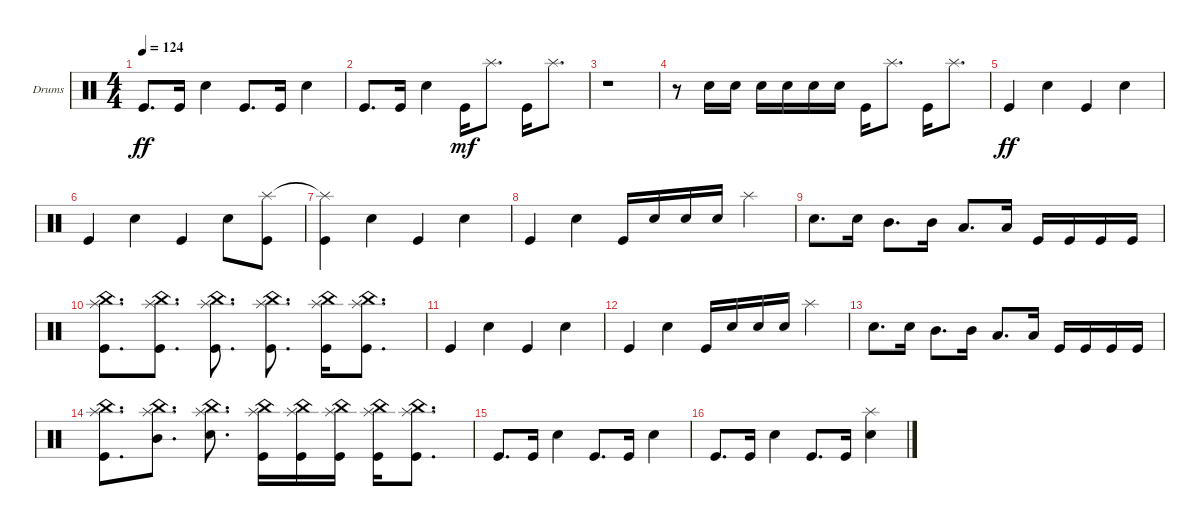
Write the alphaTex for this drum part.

\defaultSystemsLayout 4
\bracketExtendMode groupsimilarinstruments
\firstSystemTrackNameOrientation horizontal
\otherSystemsTrackNameOrientation horizontal
\track ("Nick Menza" "Drums") {instrument percussion}
\staff {score}
\articulation defaults
\ts (4 4)
\tempo 124
\clef neutral
\scale
0.333333
\ks c "Kick (hit)".8{d dy ff} "Kick (hit)".16 "Snare (hit) 2".4 "Kick (hit)".8{d} "Kick (hit)".16 "Snare (hit) 2".4
|
\scale
0.333333 "Kick (hit)".8{d} "Kick (hit)".16 "Snare (hit) 2".4 "Kick (hit)".16{dy mf} "Splash (hit)".8{d} "Kick (hit)".16 "Splash (hit)".8{d} |
\scale
0.333333 r.1 |
\scale
0.333333 r.8 "Snare (hit) 2".16 "Snare (hit) 2".16 "Snare (hit) 2".16 "Snare (hit) 2".16 "Snare (hit) 2".16 "Snare (hit) 2".16 "Kick (hit)".16 "Splash (hit)".8{d} "Kick (hit)".16 "Splash (hit)".8{d} |
\scale
0.333333 "Kick (hit)".4{dy ff} "Snare (hit) 2".4 "Kick (hit)".4 "Snare (hit) 2".4 |
\scale
0.333333 "Kick (hit)".4 "Snare (hit) 2".4 "Kick (hit)".4 "Snare (hit) 2".8 ("Splash (hit)" "Kick (hit)").8 |
\scale
0.333333 ("Splash (hit)"{t} "Kick (hit)").4 "Snare (hit) 2".4 "Kick (hit)".4 "Snare (hit) 2".4 |
\scale
0.333333 "Kick (hit)".4 "Snare (hit) 2".4 "Kick (hit)".16 "Snare (hit) 2".16 "Snare (hit) 2".16 "Snare (hit) 2".16 "Splash (hit)".4 |
\scale
0.333333 "Snare (hit) 2".8{d} "Snare (hit) 2".16 "Mid Tom (hit)".8{d} "Mid Tom (hit)".16 "Low Tom (hit)".8{d} "Low Tom (hit)".16 "Kick (hit)".16 "Kick (hit)".16 "Kick (hit)".16 "Kick (hit)".16 |
\scale
0.333333 ("China (hit)" "Splash (hit)" "Kick (hit)").8{d} ("Splash (hit)" "China (hit)" "Kick (hit)").8{d} ("Splash (hit)" "China (hit)" "Kick (hit)").8{d} ("Splash (hit)" "China (hit)" "Kick (hit)").8{d} ("Splash (hit)" "China (hit)" "Kick (hit)").16 ("Splash (hit)" "China (hit)" "Kick (hit)").8{d} |
\scale
0.333333 "Kick (hit)".4 "Snare (hit) 2".4 "Kick (hit)".4 "Snare (hit) 2".4 |
\scale
0.333333 "Kick (hit)".4 "Snare (hit) 2".4 "Kick (hit)".16 "Snare (hit) 2".16 "Snare (hit) 2".16 "Snare (hit) 2".16 "Splash (hit)".4 |
\scale
0.333333 "Snare (hit) 2".8{d} "Snare (hit) 2".16 "Mid Tom (hit)".8{d} "Mid Tom (hit)".16 "Low Tom (hit)".8{d} "Low Tom (hit)".16 "Kick (hit)".16 "Kick (hit)".16 "Kick (hit)".16 "Kick (hit)".16 |
\scale
0.333333 ("China (hit)" "Splash (hit)" "Kick (hit)").8{d} ("Splash (hit)" "China (hit)" "Mid Tom (hit)").8{d} ("Splash (hit)" "China (hit)" "Snare (hit) 2").8{d} ("Splash (hit)" "China (hit)" "Kick (hit)").16 ("Splash (hit)" "China (hit)" "Kick (hit)").16 ("Splash (hit)" "China (hit)" "Kick (hit)").16 ("Splash (hit)" "China (hit)" "Kick (hit)").16 ("Splash (hit)" "China (hit)" "Kick (hit)").8{d} |
\scale
0.333333 "Kick (hit)".8{d} "Kick (hit)".16 "Snare (hit) 2".4 "Kick (hit)".8{d} "Kick (hit)".16 "Snare (hit) 2".4 |
\scale
0.333333 "Kick (hit)".8{d} "Kick (hit)".16 "Snare (hit) 2".4 "Kick (hit)".8{d} "Kick (hit)".16 ("Snare (hit) 2" "Splash (hit)").4
